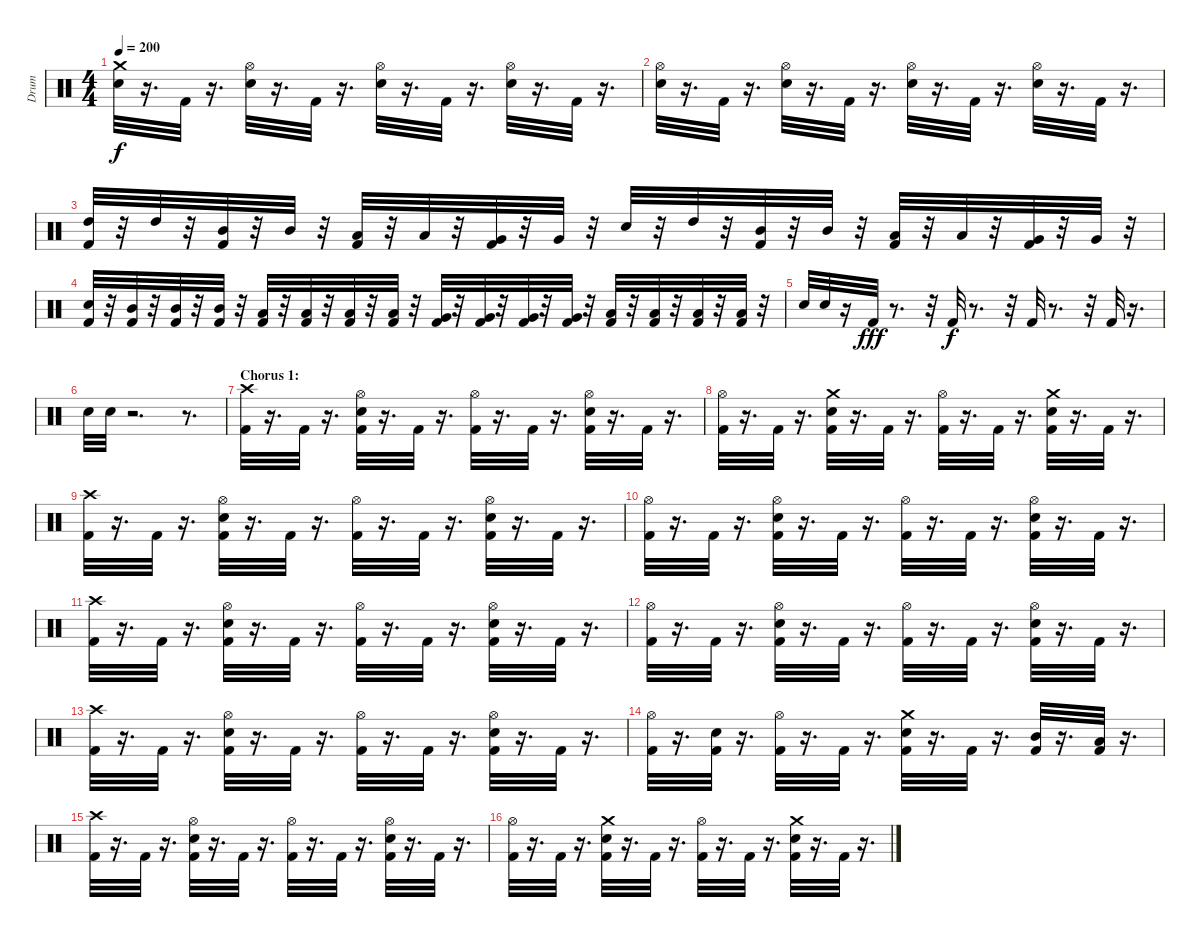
\track ("Drum" "Drum") {instrument percussion}
\staff {score}
\articulation defaults
\ts (4 4)
\tempo 200
\clef neutral
\ks c
("Crash medium (hit)" "Snare (hit) 2").32{dy f} r.16{d} "Kick (hit) 2".32 r.16{d} ("Snare (hit) 2" "Hi-Hat (open)").32 r.16{d} "Kick (hit) 2".32 r.16{d} ("Snare (hit) 2" "Hi-Hat (open)").32 r.16{d} "Kick (hit) 2".32 r.16{d} ("Hi-Hat (open)" "Snare (hit) 2").32 r.16{d} "Kick (hit) 2".32 r.16{d} |
("Snare (hit) 2" "Hi-Hat (open)").32 r.16{d} "Kick (hit) 2".32 r.16{d} ("Hi-Hat (open)" "Snare (hit) 2").32 r.16{d} "Kick (hit) 2".32 r.16{d} ("Snare (hit) 2" "Hi-Hat (open)").32 r.16{d} "Kick (hit) 2".32 r.16{d} ("Hi-Hat (open)" "Snare (hit) 2").32 r.16{d} "Kick (hit) 2".32 r.16{d} |
("Kick (hit) 2" "High Tom (hit)").32 r.32 "High Tom (hit)".32 r.32 ("Mid Tom (hit)" "Kick (hit) 2").32 r.32 "Mid Tom (hit)".32 r.32 ("Kick (hit) 2" "Low Tom (hit)").32 r.32 "Low Tom (hit)".32 r.32 ("Kick (hit) 2" "Very Low Tom (hit)").32 r.32 "Very Low Tom (hit)".32 r.32 "Snare (hit) 2".32 r.32 "High Tom (hit)".32 r.32 ("Kick (hit) 2" "Mid Tom (hit)").32 r.32 "Mid Tom (hit)".32 r.32 ("Kick (hit) 2" "Low Tom (hit)").32 r.32 "Low Tom (hit)".32 r.32 ("Kick (hit) 2" "Very Low Tom (hit)").32 r.32 "Very Low Tom (hit)".32 r.32 |
("Snare (hit) 2" "Kick (hit) 2").32 r.32 ("Mid Tom (hit)" "Kick (hit) 2").32 r.32 ("Mid Tom (hit)" "Kick (hit) 2").32 r.32 ("Mid Tom (hit)" "Kick (hit) 2").32 r.32 ("Low Tom (hit)" "Kick (hit) 2").32 r.32 ("Low Tom (hit)" "Kick (hit) 2").32 r.32 ("Low Tom (hit)" "Kick (hit) 2").32 r.32 ("Low Tom (hit)" "Kick (hit) 2").32 r.32 ("Very Low Tom (hit)" "Kick (hit) 2").32 r.32 ("Very Low Tom (hit)" "Kick (hit) 2").32 r.32 ("Very Low Tom (hit)" "Kick (hit) 2").32 r.32 ("Very Low Tom (hit)" "Kick (hit) 2").32 r.32 ("Low Floor Tom (hit)" "Kick (hit) 2").32 r.32 ("Low Floor Tom (hit)" "Kick (hit) 2").32 r.32 ("Low Floor Tom (hit)" "Kick (hit) 2").32 r.32 ("Low Floor Tom (hit)" "Kick (hit) 2").32 r.32 |
"Snare (hit) 2".32 "Snare (hit) 2".32 r.16 "Kick (hit) 2".32{dy fff} r.8{d} r.32 "Kick (hit) 2".32{dy f} r.8{d} r.32 "Kick (hit) 2".32 r.8{d} r.32 "Kick (hit) 2".32 r.16{d} |
"Snare (hit) 2".32 "Snare (hit) 2".32 r.2{d} r.8{d} |
\section ("" "Chorus 1:")
("Crash high (hit)" "Kick (hit) 2").32 r.16{d} "Kick (hit) 2".32 r.16{d} ("Hi-Hat (open)" "Snare (hit) 2" "Kick (hit) 2").32 r.16{d} "Kick (hit) 2".32 r.16{d} ("Hi-Hat (open)" "Kick (hit) 2").32 r.16{d} "Kick (hit) 2".32 r.16{d} ("Hi-Hat (open)" "Snare (hit) 2" "Kick (hit) 2").32 r.16{d} "Kick (hit) 2".32 r.16{d} |
("Hi-Hat (open)" "Kick (hit) 2").32 r.16{d} "Kick (hit) 2".32 r.16{d} ("Crash medium (hit)" "Snare (hit) 2" "Kick (hit) 2").32 r.16{d} "Kick (hit) 2".32 r.16{d} ("Hi-Hat (open)" "Kick (hit) 2").32 r.16{d} "Kick (hit) 2".32 r.16{d} ("Crash medium (hit)" "Snare (hit) 2" "Kick (hit) 2").32 r.16{d} "Kick (hit) 2".32 r.16{d} |
("Crash high (hit)" "Kick (hit) 2").32 r.16{d} "Kick (hit) 2".32 r.16{d} ("Hi-Hat (open)" "Snare (hit) 2" "Kick (hit) 2").32 r.16{d} "Kick (hit) 2".32 r.16{d} ("Hi-Hat (open)" "Kick (hit) 2").32 r.16{d} "Kick (hit) 2".32 r.16{d} ("Hi-Hat (open)" "Snare (hit) 2" "Kick (hit) 2").32 r.16{d} "Kick (hit) 2".32 r.16{d} |
("Hi-Hat (open)" "Kick (hit) 2").32 r.16{d} "Kick (hit) 2".32 r.16{d} ("Hi-Hat (open)" "Snare (hit) 2" "Kick (hit) 2").32 r.16{d} "Kick (hit) 2".32 r.16{d} ("Hi-Hat (open)" "Kick (hit) 2").32 r.16{d} "Kick (hit) 2".32 r.16{d} ("Hi-Hat (open)" "Snare (hit) 2" "Kick (hit) 2").32 r.16{d} "Kick (hit) 2".32 r.16{d} |
("Crash high (hit)" "Kick (hit) 2").32 r.16{d} "Kick (hit) 2".32 r.16{d} ("Hi-Hat (open)" "Snare (hit) 2" "Kick (hit) 2").32 r.16{d} "Kick (hit) 2".32 r.16{d} ("Hi-Hat (open)" "Kick (hit) 2").32 r.16{d} "Kick (hit) 2".32 r.16{d} ("Hi-Hat (open)" "Snare (hit) 2" "Kick (hit) 2").32 r.16{d} "Kick (hit) 2".32 r.16{d} |
("Hi-Hat (open)" "Kick (hit) 2").32 r.16{d} "Kick (hit) 2".32 r.16{d} ("Hi-Hat (open)" "Snare (hit) 2" "Kick (hit) 2").32 r.16{d} "Kick (hit) 2".32 r.16{d} ("Hi-Hat (open)" "Kick (hit) 2").32 r.16{d} "Kick (hit) 2".32 r.16{d} ("Hi-Hat (open)" "Snare (hit) 2" "Kick (hit) 2").32 r.16{d} "Kick (hit) 2".32 r.16{d} |
("Crash high (hit)" "Kick (hit) 2").32 r.16{d} "Kick (hit) 2".32 r.16{d} ("Hi-Hat (open)" "Snare (hit) 2" "Kick (hit) 2").32 r.16{d} "Kick (hit) 2".32 r.16{d} ("Hi-Hat (open)" "Kick (hit) 2").32 r.16{d} "Kick (hit) 2".32 r.16{d} ("Hi-Hat (open)" "Snare (hit) 2" "Kick (hit) 2").32 r.16{d} "Kick (hit) 2".32 r.16{d} |
("Hi-Hat (open)" "Kick (hit) 2").32 r.16{d} ("Snare (hit) 2" "Kick (hit) 2").32 r.16{d} ("Hi-Hat (open)" "Kick (hit) 2").32 r.16{d} "Kick (hit) 2".32 r.16{d} ("Crash medium (hit)" "Snare (hit) 2" "Kick (hit) 2").32 r.16{d} "Kick (hit) 2".32 r.16{d} ("Mid Tom (hit)" "Kick (hit) 2").32 r.16{d} ("Low Tom (hit)" "Kick (hit) 2").32 r.16{d} |
("Crash high (hit)" "Kick (hit) 2").32 r.16{d} "Kick (hit) 2".32 r.16{d} ("Hi-Hat (open)" "Snare (hit) 2" "Kick (hit) 2").32 r.16{d} "Kick (hit) 2".32 r.16{d} ("Hi-Hat (open)" "Kick (hit) 2").32 r.16{d} "Kick (hit) 2".32 r.16{d} ("Hi-Hat (open)" "Snare (hit) 2" "Kick (hit) 2").32 r.16{d} "Kick (hit) 2".32 r.16{d} |
("Hi-Hat (open)" "Kick (hit) 2").32 r.16{d} "Kick (hit) 2".32 r.16{d} ("Crash medium (hit)" "Snare (hit) 2" "Kick (hit) 2").32 r.16{d} "Kick (hit) 2".32 r.16{d} ("Hi-Hat (open)" "Kick (hit) 2").32 r.16{d} "Kick (hit) 2".32 r.16{d} ("Crash medium (hit)" "Snare (hit) 2" "Kick (hit) 2").32 r.16{d} "Kick (hit) 2".32 r.16{d}
